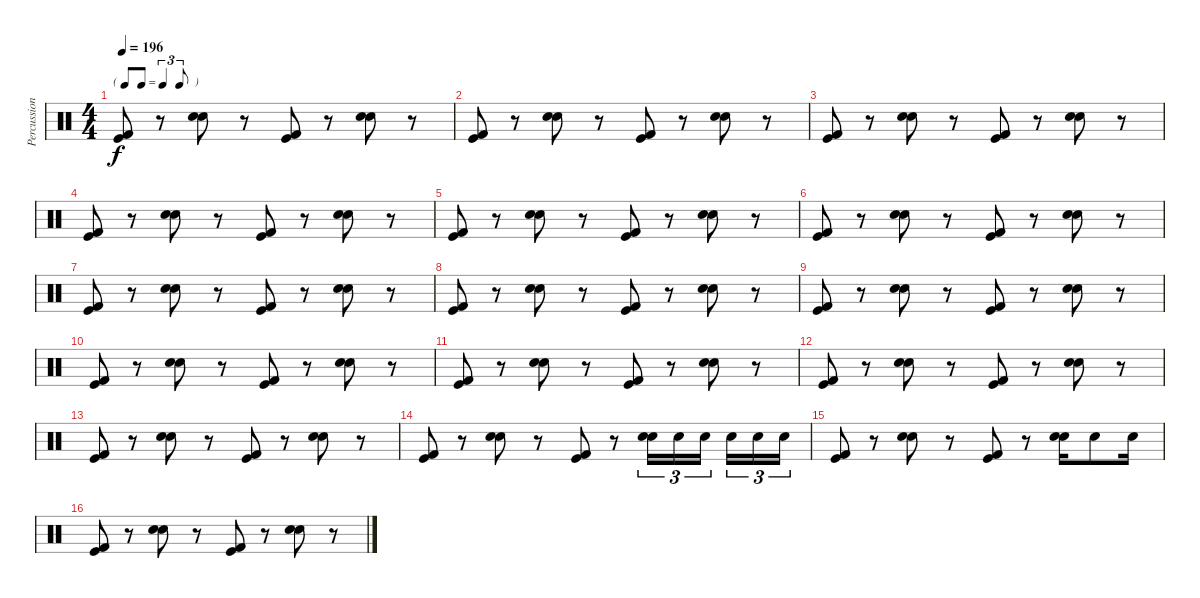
\track ("Percussions" "Percussion") {instrument percussion}
\staff {score}
\articulation defaults
\ts (4 4)
\tf triplet8th
\tempo 196
\clef neutral
\ks c
("Kick (hit) 2" "Kick (hit)").8{dy f} r.8 ("Snare (hit) 2" "Electric Snare (hit)").8 r.8 ("Kick (hit) 2" "Kick (hit)").8 r.8 ("Snare (hit) 2" "Electric Snare (hit)").8 r.8 |
("Kick (hit) 2" "Kick (hit)").8 r.8 ("Snare (hit) 2" "Electric Snare (hit)").8 r.8 ("Kick (hit) 2" "Kick (hit)").8 r.8 ("Snare (hit) 2" "Electric Snare (hit)").8 r.8 |
("Kick (hit) 2" "Kick (hit)").8 r.8 ("Snare (hit) 2" "Electric Snare (hit)").8 r.8 ("Kick (hit) 2" "Kick (hit)").8 r.8 ("Snare (hit) 2" "Electric Snare (hit)").8 r.8 |
("Kick (hit) 2" "Kick (hit)").8 r.8 ("Snare (hit) 2" "Electric Snare (hit)").8 r.8 ("Kick (hit) 2" "Kick (hit)").8 r.8 ("Snare (hit) 2" "Electric Snare (hit)").8 r.8 |
("Kick (hit) 2" "Kick (hit)").8 r.8 ("Snare (hit) 2" "Electric Snare (hit)").8 r.8 ("Kick (hit) 2" "Kick (hit)").8 r.8 ("Snare (hit) 2" "Electric Snare (hit)").8 r.8 |
("Kick (hit) 2" "Kick (hit)").8 r.8 ("Snare (hit) 2" "Electric Snare (hit)").8 r.8 ("Kick (hit) 2" "Kick (hit)").8 r.8 ("Snare (hit) 2" "Electric Snare (hit)").8 r.8 |
("Kick (hit) 2" "Kick (hit)").8 r.8 ("Snare (hit) 2" "Electric Snare (hit)").8 r.8 ("Kick (hit) 2" "Kick (hit)").8 r.8 ("Snare (hit) 2" "Electric Snare (hit)").8 r.8 |
("Kick (hit) 2" "Kick (hit)").8 r.8 ("Snare (hit) 2" "Electric Snare (hit)").8 r.8 ("Kick (hit) 2" "Kick (hit)").8 r.8 ("Snare (hit) 2" "Electric Snare (hit)").8 r.8 |
("Kick (hit) 2" "Kick (hit)").8 r.8 ("Snare (hit) 2" "Electric Snare (hit)").8 r.8 ("Kick (hit) 2" "Kick (hit)").8 r.8 ("Snare (hit) 2" "Electric Snare (hit)").8 r.8 |
("Kick (hit) 2" "Kick (hit)").8 r.8 ("Snare (hit) 2" "Electric Snare (hit)").8 r.8 ("Kick (hit) 2" "Kick (hit)").8 r.8 ("Snare (hit) 2" "Electric Snare (hit)").8 r.8 |
("Kick (hit) 2" "Kick (hit)").8 r.8 ("Snare (hit) 2" "Electric Snare (hit)").8 r.8 ("Kick (hit) 2" "Kick (hit)").8 r.8 ("Snare (hit) 2" "Electric Snare (hit)").8 r.8 |
("Kick (hit) 2" "Kick (hit)").8 r.8 ("Snare (hit) 2" "Electric Snare (hit)").8 r.8 ("Kick (hit) 2" "Kick (hit)").8 r.8 ("Snare (hit) 2" "Electric Snare (hit)").8 r.8 |
("Kick (hit) 2" "Kick (hit)").8 r.8 ("Snare (hit) 2" "Electric Snare (hit)").8 r.8 ("Kick (hit) 2" "Kick (hit)").8 r.8 ("Snare (hit) 2" "Electric Snare (hit)").8 r.8 |
("Kick (hit) 2" "Kick (hit)").8 r.8 ("Snare (hit) 2" "Electric Snare (hit)").8 r.8 ("Kick (hit) 2" "Kick (hit)").8 r.8 ("Hand Clap (hit)" "Electric Snare (hit)").16{tu (3 2)} "Hand Clap (hit)".16{tu (3 2)} "Hand Clap (hit)".16{tu (3 2)} "Hand Clap (hit)".16{tu (3 2)} "Hand Clap (hit)".16{tu (3 2)} "Hand Clap (hit)".16{tu (3 2)} |
("Kick (hit) 2" "Kick (hit)").8 r.8 ("Snare (hit) 2" "Electric Snare (hit)").8 r.8 ("Kick (hit) 2" "Kick (hit)").8 r.8 ("Snare (hit) 2" "Electric Snare (hit)").16 "Hand Clap (hit)".8 "Hand Clap (hit)".16 |
("Kick (hit) 2" "Kick (hit)").8 r.8 ("Snare (hit) 2" "Electric Snare (hit)").8 r.8 ("Kick (hit) 2" "Kick (hit)").8 r.8 ("Snare (hit) 2" "Electric Snare (hit)").8 r.8
